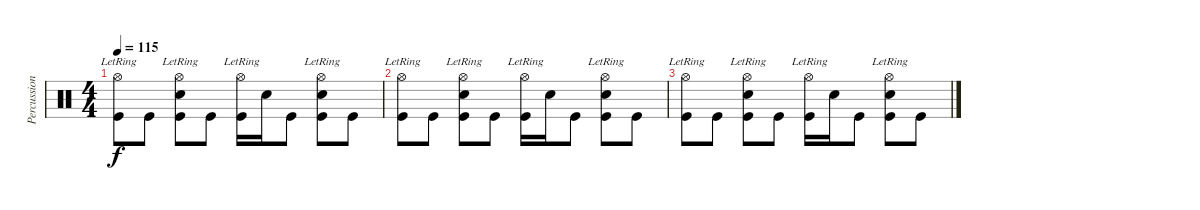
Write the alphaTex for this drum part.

\track ("Percussion" "Percussion") {instrument percussion}
\staff {score}
\articulation defaults
\ts (4 4)
\tempo 115
\clef neutral
\ks c
("Hi-Hat (open)"{lr} "Kick (hit)").8{dy f} "Kick (hit)".8 ("Hi-Hat (open)"{lr} "Snare (hit) 2" "Kick (hit)").8 "Kick (hit)".8 ("Hi-Hat (open)"{lr} "Kick (hit)").16 "Snare (hit) 2".16 "Kick (hit)".8 ("Hi-Hat (open)"{lr} "Snare (hit) 2" "Kick (hit)").8 "Kick (hit)".8 |
("Hi-Hat (open)"{lr} "Kick (hit)").8 "Kick (hit)".8 ("Hi-Hat (open)"{lr} "Snare (hit) 2" "Kick (hit)").8 "Kick (hit)".8 ("Hi-Hat (open)"{lr} "Kick (hit)").16 "Snare (hit) 2".16 "Kick (hit)".8 ("Hi-Hat (open)"{lr} "Snare (hit) 2" "Kick (hit)").8 "Kick (hit)".8 |
("Hi-Hat (open)"{lr} "Kick (hit)").8 "Kick (hit)".8 ("Hi-Hat (open)"{lr} "Snare (hit) 2" "Kick (hit)").8 "Kick (hit)".8 ("Hi-Hat (open)"{lr} "Kick (hit)").16 "Snare (hit) 2".16 "Kick (hit)".8 ("Hi-Hat (open)"{lr} "Snare (hit) 2" "Kick (hit)").8 "Kick (hit)".8
